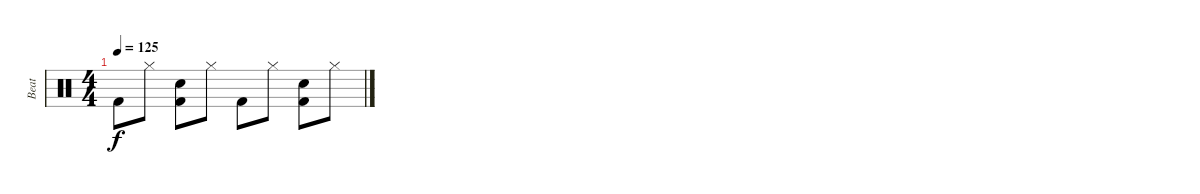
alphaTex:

\track ("Beat" "Beat") {instrument percussion}
\staff {score}
\articulation defaults
\ts (4 4)
\tempo 125
\clef neutral
\ks c "Kick (hit) 2".8{dy f} "Hi-Hat (closed)".8
("Electric Snare (hit)" "Kick (hit) 2").8 "Hi-Hat (closed)".8 "Kick (hit) 2".8 "Hi-Hat (closed)".8 ("Electric Snare (hit)" "Kick (hit) 2").8 "Hi-Hat (closed)".8
